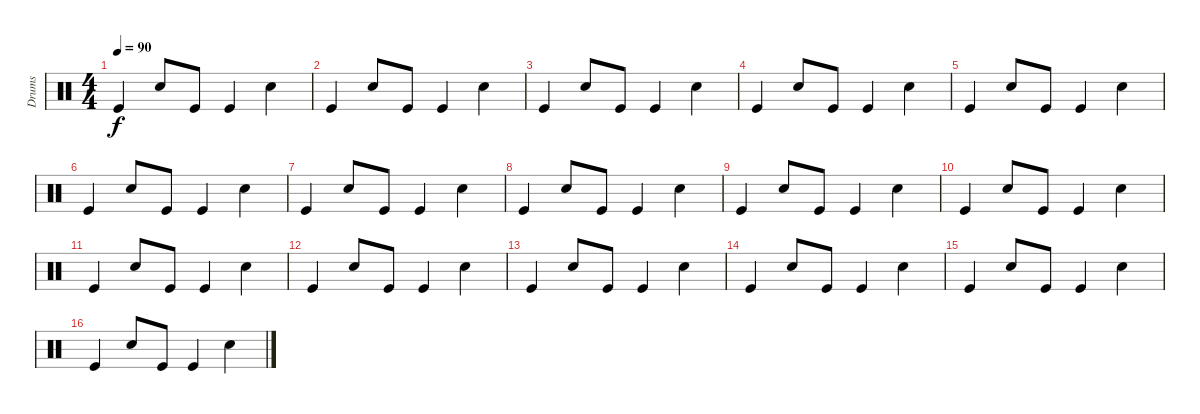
\track ("Drums" "Drums") {instrument percussion}
\staff {score}
\articulation defaults
\ts (4 4)
\tempo 90
\clef neutral
\ks c "Kick (hit)".4{dy f} "Snare (hit) 2".8 "Kick (hit)".8 "Kick (hit)".4 "Snare (hit) 2".4
|
"Kick (hit)".4 "Snare (hit) 2".8 "Kick (hit)".8 "Kick (hit)".4 "Snare (hit) 2".4 |
"Kick (hit)".4 "Snare (hit) 2".8 "Kick (hit)".8 "Kick (hit)".4 "Snare (hit) 2".4 |
"Kick (hit)".4 "Snare (hit) 2".8 "Kick (hit)".8 "Kick (hit)".4 "Snare (hit) 2".4 |
"Kick (hit)".4 "Snare (hit) 2".8 "Kick (hit)".8 "Kick (hit)".4 "Snare (hit) 2".4 |
"Kick (hit)".4 "Snare (hit) 2".8 "Kick (hit)".8 "Kick (hit)".4 "Snare (hit) 2".4 |
"Kick (hit)".4 "Snare (hit) 2".8 "Kick (hit)".8 "Kick (hit)".4 "Snare (hit) 2".4 |
"Kick (hit)".4 "Snare (hit) 2".8 "Kick (hit)".8 "Kick (hit)".4 "Snare (hit) 2".4 |
"Kick (hit)".4 "Snare (hit) 2".8 "Kick (hit)".8 "Kick (hit)".4 "Snare (hit) 2".4 |
"Kick (hit)".4 "Snare (hit) 2".8 "Kick (hit)".8 "Kick (hit)".4 "Snare (hit) 2".4 |
"Kick (hit)".4 "Snare (hit) 2".8 "Kick (hit)".8 "Kick (hit)".4 "Snare (hit) 2".4 |
"Kick (hit)".4 "Snare (hit) 2".8 "Kick (hit)".8 "Kick (hit)".4 "Snare (hit) 2".4 |
"Kick (hit)".4 "Snare (hit) 2".8 "Kick (hit)".8 "Kick (hit)".4 "Snare (hit) 2".4 |
"Kick (hit)".4 "Snare (hit) 2".8 "Kick (hit)".8 "Kick (hit)".4 "Snare (hit) 2".4 |
"Kick (hit)".4 "Snare (hit) 2".8 "Kick (hit)".8 "Kick (hit)".4 "Snare (hit) 2".4 |
"Kick (hit)".4 "Snare (hit) 2".8 "Kick (hit)".8 "Kick (hit)".4 "Snare (hit) 2".4
